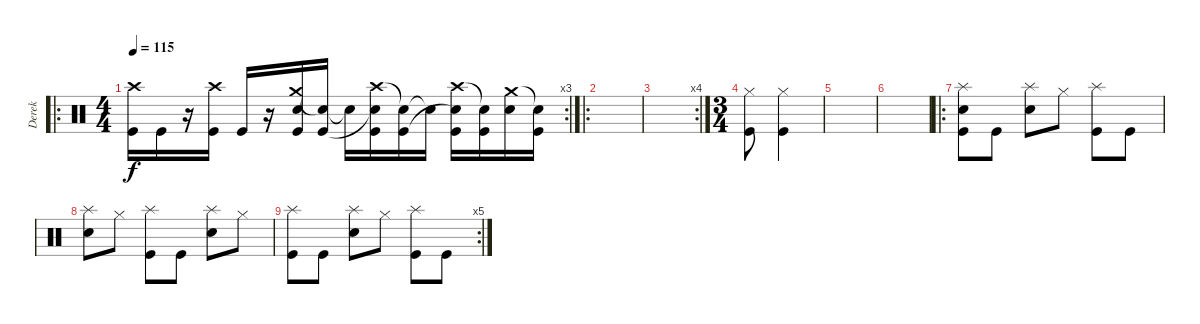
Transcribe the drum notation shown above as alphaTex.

\track ("Derek" "Derek") {instrument percussion}
\staff {score}
\articulation defaults
\ro
\rc 3
\ts (4 4)
\tempo 115
\clef neutral
\ks c
("Crash high (hit)" "Kick (hit)").16{dy f} "Kick (hit)".16 r.16 ("Crash high (hit)" "Kick (hit)").16 "Kick (hit)".16 r.16 ("Crash medium (hit)" "Electric Snare (hit)" "Kick (hit)").16 ("Snare (hit)"{t} "Kick (hit)").16 "Snare (hit)"{t}.16 ("Crash high (hit)" "Electric Snare (hit)"{t} "Kick (hit)").16 ("Snare (hit)"{t} "Kick (hit)").16 "Snare (hit)"{t}.16 ("Crash high (hit)" "Electric Snare (hit)"{t} "Kick (hit)").16 ("Snare (hit)"{t} "Kick (hit)").16 ("Crash medium (hit)" "Electric Snare (hit)").16 ("Snare (hit)"{t} "Kick (hit)").16 |
\ro
|
\rc 4
|
\ts (3 4)
("Hi-Hat (closed)" "Kick (hit)").8 ("Hi-Hat (closed)" "Kick (hit)").4 |
|
|
\ro
("Splash (hit)" "Electric Snare (hit)" "Kick (hit)").8 "Kick (hit)".8 ("Splash (hit)" "Electric Snare (hit)").8 "Hi-Hat (closed)".8 ("Splash (hit)" "Kick (hit)").8 "Kick (hit)".8 |
("Splash (hit)" "Electric Snare (hit)").8 "Hi-Hat (closed)".8 ("Splash (hit)" "Kick (hit)").8 "Kick (hit)".8 ("Splash (hit)" "Electric Snare (hit)").8 "Hi-Hat (closed)".8 |
\rc 5
("Splash (hit)" "Kick (hit)").8 "Kick (hit)".8 ("Splash (hit)" "Electric Snare (hit)").8 "Hi-Hat (closed)".8 ("Splash (hit)" "Kick (hit)").8 "Kick (hit)".8
